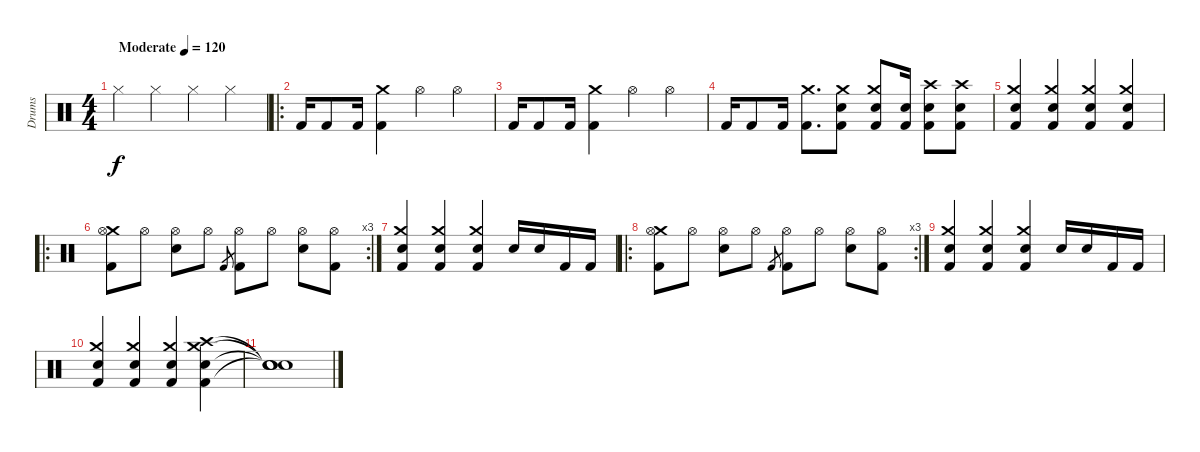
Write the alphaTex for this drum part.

\track ("Drums" "Drums") {instrument percussion}
\staff {score}
\articulation defaults
\ts (4 4)
\tempo (120 "Moderate")
\tempo 107
\tempo (120 "Moderate")
\clef neutral
\ks c "Hi-Hat (closed)".4{dy f} "Hi-Hat (closed)".4 "Hi-Hat (closed)".4 "Hi-Hat (closed)".4
|
\ro "Kick (hit) 2".16 "Kick (hit) 2".8 "Kick (hit) 2".16
("Crash medium (hit)" "Kick (hit) 2").4 "Hi-Hat (open)".4 "Hi-Hat (open)".4 |
"Kick (hit) 2".16 "Kick (hit) 2".8 "Kick (hit) 2".16 ("Crash medium (hit)" "Kick (hit) 2").4 "Hi-Hat (open)".4 "Hi-Hat (open)".4 |
"Kick (hit) 2".16 "Kick (hit) 2".8 "Kick (hit) 2".16 ("Crash medium (hit)" "Kick (hit) 2").8{d} ("Crash medium (hit)" "Snare (hit) 2" "Kick (hit) 2").8 ("Crash medium (hit)" "Snare (hit) 2" "Kick (hit) 2").8 ("Snare (hit) 2" "Kick (hit) 2").16 ("Crash high (hit)" "Snare (hit) 2" "Kick (hit) 2").8 ("Crash high (hit)" "Snare (hit) 2" "Kick (hit) 2").8 |
("Crash medium (hit)" "Kick (hit) 2" "Snare (hit) 2").4 ("Crash medium (hit)" "Kick (hit) 2" "Snare (hit) 2").4 ("Crash medium (hit)" "Kick (hit) 2" "Snare (hit) 2").4 ("Crash medium (hit)" "Kick (hit) 2" "Snare (hit) 2").4 |
\ro
\rc 3
("Crash medium (hit)" "Hi-Hat (open)" "Kick (hit) 2").8 "Hi-Hat (open)".8 ("Hi-Hat (open)" "Snare (hit) 2").8 "Hi-Hat (open)".8 "Kick (hit) 2".8{gr} ("Hi-Hat (open)" "Kick (hit) 2").8 "Hi-Hat (open)".8 ("Hi-Hat (open)" "Snare (hit) 2").8 ("Hi-Hat (open)" "Kick (hit) 2").8 |
("Crash medium (hit)" "Kick (hit) 2" "Snare (hit) 2").4 ("Crash medium (hit)" "Kick (hit) 2" "Snare (hit) 2").4 ("Crash medium (hit)" "Kick (hit) 2" "Snare (hit) 2").4 "Snare (hit) 2".16 "Snare (hit) 2".16 "Kick (hit) 2".16 "Kick (hit) 2".16 |
\ro
\rc 3
("Crash medium (hit)" "Hi-Hat (open)" "Kick (hit) 2").8 "Hi-Hat (open)".8 ("Hi-Hat (open)" "Snare (hit) 2").8 "Hi-Hat (open)".8 "Kick (hit) 2".8{gr} ("Hi-Hat (open)" "Kick (hit) 2").8 "Hi-Hat (open)".8 ("Hi-Hat (open)" "Snare (hit) 2").8 ("Hi-Hat (open)" "Kick (hit) 2").8 |
("Crash medium (hit)" "Kick (hit) 2" "Snare (hit) 2").4 ("Crash medium (hit)" "Kick (hit) 2" "Snare (hit) 2").4 ("Crash medium (hit)" "Kick (hit) 2" "Snare (hit) 2").4 "Snare (hit) 2".16 "Snare (hit) 2".16 "Kick (hit) 2".16 "Kick (hit) 2".16 |
("Crash medium (hit)" "Kick (hit) 2" "Snare (hit) 2").4 ("Crash medium (hit)" "Kick (hit) 2" "Snare (hit) 2").4 ("Crash medium (hit)" "Kick (hit) 2" "Snare (hit) 2").4 ("Crash high (hit)" "Crash medium (hit)" "Kick (hit) 2" "Snare (hit) 2").4 |
("Snare (hit)"{t} "Snare (hit)"{t} "Snare (hit)"{t} "Snare (hit)"{t}).1
